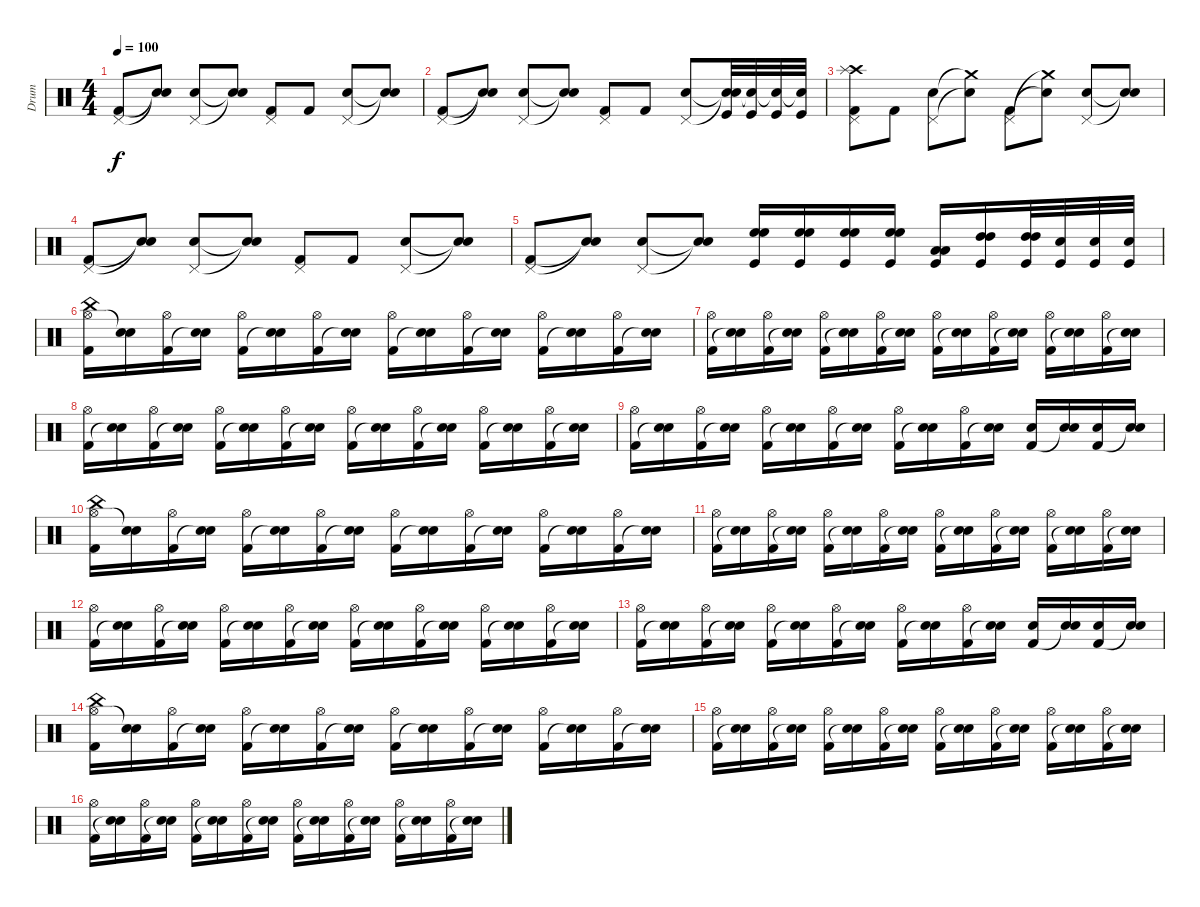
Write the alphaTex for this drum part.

\track ("Drum" "Drum") {instrument percussion}
\staff {score}
\articulation defaults
\ts (4 4)
\tempo 100
\clef neutral
\ks c
("Pedal Hi-Hat (hit)" "Kick (hit) 2").8{dy f} ("Snare (hit)"{t} "Snare (hit)"{t}).8 ("Pedal Hi-Hat (hit)" "Electric Snare (hit)").8 ("Snare (hit)"{t} "Snare (hit)"{t}).8 ("Pedal Hi-Hat (hit)" "Kick (hit) 2").8 "Kick (hit) 2".8 ("Pedal Hi-Hat (hit)" "Electric Snare (hit)").8 ("Snare (hit)"{t} "Snare (hit)"{t}).8 |
("Pedal Hi-Hat (hit)" "Kick (hit) 2").8 ("Snare (hit)"{t} "Snare (hit)"{t}).8 ("Pedal Hi-Hat (hit)" "Electric Snare (hit)").8 ("Snare (hit)"{t} "Snare (hit)"{t}).8 ("Pedal Hi-Hat (hit)" "Kick (hit) 2").8 "Kick (hit) 2".8 ("Pedal Hi-Hat (hit)" "Electric Snare (hit)").8 ("Snare (hit)"{t} "Snare (hit)"{t} "Kick (hit)").32 ("Snare (hit)"{t} "Kick (hit)").32 ("Snare (hit)"{t} "Kick (hit)").32 ("Snare (hit)"{t} "Kick (hit)").32 |
("Crash high (hit)" "Splash (hit)" "Pedal Hi-Hat (hit)" "Kick (hit) 2").8 "Kick (hit) 2".8 ("Electric Snare (hit)" "Pedal Hi-Hat (hit)").8 ("Crash medium (hit)"{t} "Snare (hit)"{t}).8 ("Pedal Hi-Hat (hit)" "Kick (hit) 2").8 ("Crash medium (hit)"{t} "Snare (hit)"{t}).8 ("Pedal Hi-Hat (hit)" "Electric Snare (hit)").8 ("Snare (hit)"{t} "Snare (hit)"{t}).8 |
("Pedal Hi-Hat (hit)" "Kick (hit) 2").8 ("Snare (hit)"{t} "Snare (hit)"{t}).8 ("Pedal Hi-Hat (hit)" "Electric Snare (hit)").8 ("Snare (hit)"{t} "Snare (hit)"{t}).8 ("Pedal Hi-Hat (hit)" "Kick (hit) 2").8 "Kick (hit) 2".8 ("Pedal Hi-Hat (hit)" "Electric Snare (hit)").8 ("Snare (hit)"{t} "Snare (hit)"{t}).8 |
("Pedal Hi-Hat (hit)" "Kick (hit) 2").8 ("Snare (hit)"{t} "Snare (hit)"{t}).8 ("Pedal Hi-Hat (hit)" "Electric Snare (hit)").8 ("Snare (hit)"{t} "Snare (hit)"{t}).8 ("High Floor Tom (hit)" "High Floor Tom (hit)" "Kick (hit)").16 ("High Floor Tom (hit)" "High Floor Tom (hit)" "Kick (hit)").16 ("High Floor Tom (hit)" "High Floor Tom (hit)" "Kick (hit)").16 ("High Floor Tom (hit)" "High Floor Tom (hit)" "Kick (hit)").16 ("Low Tom (hit)" "Low Tom (hit)" "Kick (hit)").16 ("High Tom (hit)" "High Tom (hit)" "Kick (hit)").16 ("High Tom (hit)" "High Tom (hit)" "Kick (hit)").32 ("Snare (hit) 2" "Kick (hit)").32 ("Snare (hit) 2" "Kick (hit)").32 ("Snare (hit) 2" "Kick (hit)").32 |
("China (hit)" "Hi-Hat (open)" "Kick (hit) 2").16 ("Electric Snare (hit)" "Snare (hit)"{t}).16 ("Hi-Hat (open)" "Kick (hit) 2").16 ("Electric Snare (hit)" "Snare (hit)"{t}).16 ("Hi-Hat (open)" "Kick (hit) 2").16 ("Electric Snare (hit)" "Snare (hit)"{t}).16 ("Hi-Hat (open)" "Kick (hit) 2").16 ("Electric Snare (hit)" "Snare (hit)"{t}).16 ("Hi-Hat (open)" "Kick (hit) 2").16 ("Electric Snare (hit)" "Snare (hit)"{t}).16 ("Hi-Hat (open)" "Kick (hit) 2").16 ("Electric Snare (hit)" "Snare (hit)"{t}).16 ("Hi-Hat (open)" "Kick (hit) 2").16 ("Electric Snare (hit)" "Snare (hit)"{t}).16 ("Hi-Hat (open)" "Kick (hit) 2").16 ("Electric Snare (hit)" "Snare (hit)"{t}).16 |
("Hi-Hat (open)" "Kick (hit) 2").16 ("Electric Snare (hit)" "Snare (hit)"{t}).16 ("Hi-Hat (open)" "Kick (hit) 2").16 ("Electric Snare (hit)" "Snare (hit)"{t}).16 ("Hi-Hat (open)" "Kick (hit) 2").16 ("Electric Snare (hit)" "Snare (hit)"{t}).16 ("Hi-Hat (open)" "Kick (hit) 2").16 ("Electric Snare (hit)" "Snare (hit)"{t}).16 ("Hi-Hat (open)" "Kick (hit) 2").16 ("Electric Snare (hit)" "Snare (hit)"{t}).16 ("Hi-Hat (open)" "Kick (hit) 2").16 ("Electric Snare (hit)" "Snare (hit)"{t}).16 ("Hi-Hat (open)" "Kick (hit) 2").16 ("Electric Snare (hit)" "Snare (hit)"{t}).16 ("Hi-Hat (open)" "Kick (hit) 2").16 ("Electric Snare (hit)" "Snare (hit)"{t}).16 |
("Hi-Hat (open)" "Kick (hit) 2").16 ("Electric Snare (hit)" "Snare (hit)"{t}).16 ("Hi-Hat (open)" "Kick (hit) 2").16 ("Electric Snare (hit)" "Snare (hit)"{t}).16 ("Hi-Hat (open)" "Kick (hit) 2").16 ("Electric Snare (hit)" "Snare (hit)"{t}).16 ("Hi-Hat (open)" "Kick (hit) 2").16 ("Electric Snare (hit)" "Snare (hit)"{t}).16 ("Hi-Hat (open)" "Kick (hit) 2").16 ("Electric Snare (hit)" "Snare (hit)"{t}).16 ("Hi-Hat (open)" "Kick (hit) 2").16 ("Electric Snare (hit)" "Snare (hit)"{t}).16 ("Hi-Hat (open)" "Kick (hit) 2").16 ("Electric Snare (hit)" "Snare (hit)"{t}).16 ("Hi-Hat (open)" "Kick (hit) 2").16 ("Electric Snare (hit)" "Snare (hit)"{t}).16 |
("Hi-Hat (open)" "Kick (hit) 2").16 ("Electric Snare (hit)" "Snare (hit)"{t}).16 ("Hi-Hat (open)" "Kick (hit) 2").16 ("Electric Snare (hit)" "Snare (hit)"{t}).16 ("Hi-Hat (open)" "Kick (hit) 2").16 ("Electric Snare (hit)" "Snare (hit)"{t}).16 ("Hi-Hat (open)" "Kick (hit) 2").16 ("Electric Snare (hit)" "Snare (hit)"{t}).16 ("Hi-Hat (open)" "Kick (hit) 2").16 ("Electric Snare (hit)" "Snare (hit)"{t}).16 ("Hi-Hat (open)" "Kick (hit) 2").16 ("Electric Snare (hit)" "Snare (hit)"{t}).16 ("Snare (hit) 2" "Kick (hit) 2").16 ("Snare (hit) 2" "Snare (hit)"{t}).16 ("Snare (hit) 2" "Kick (hit) 2").16 ("Snare (hit) 2" "Snare (hit)"{t}).16 |
("China (hit)" "Hi-Hat (open)" "Kick (hit) 2").16 ("Electric Snare (hit)" "Snare (hit)"{t}).16 ("Hi-Hat (open)" "Kick (hit) 2").16 ("Electric Snare (hit)" "Snare (hit)"{t}).16 ("Hi-Hat (open)" "Kick (hit) 2").16 ("Electric Snare (hit)" "Snare (hit)"{t}).16 ("Hi-Hat (open)" "Kick (hit) 2").16 ("Electric Snare (hit)" "Snare (hit)"{t}).16 ("Hi-Hat (open)" "Kick (hit) 2").16 ("Electric Snare (hit)" "Snare (hit)"{t}).16 ("Hi-Hat (open)" "Kick (hit) 2").16 ("Electric Snare (hit)" "Snare (hit)"{t}).16 ("Hi-Hat (open)" "Kick (hit) 2").16 ("Electric Snare (hit)" "Snare (hit)"{t}).16 ("Hi-Hat (open)" "Kick (hit) 2").16 ("Electric Snare (hit)" "Snare (hit)"{t}).16 |
("Hi-Hat (open)" "Kick (hit) 2").16 ("Electric Snare (hit)" "Snare (hit)"{t}).16 ("Hi-Hat (open)" "Kick (hit) 2").16 ("Electric Snare (hit)" "Snare (hit)"{t}).16 ("Hi-Hat (open)" "Kick (hit) 2").16 ("Electric Snare (hit)" "Snare (hit)"{t}).16 ("Hi-Hat (open)" "Kick (hit) 2").16 ("Electric Snare (hit)" "Snare (hit)"{t}).16 ("Hi-Hat (open)" "Kick (hit) 2").16 ("Electric Snare (hit)" "Snare (hit)"{t}).16 ("Hi-Hat (open)" "Kick (hit) 2").16 ("Electric Snare (hit)" "Snare (hit)"{t}).16 ("Hi-Hat (open)" "Kick (hit) 2").16 ("Electric Snare (hit)" "Snare (hit)"{t}).16 ("Hi-Hat (open)" "Kick (hit) 2").16 ("Electric Snare (hit)" "Snare (hit)"{t}).16 |
("Hi-Hat (open)" "Kick (hit) 2").16 ("Electric Snare (hit)" "Snare (hit)"{t}).16 ("Hi-Hat (open)" "Kick (hit) 2").16 ("Electric Snare (hit)" "Snare (hit)"{t}).16 ("Hi-Hat (open)" "Kick (hit) 2").16 ("Electric Snare (hit)" "Snare (hit)"{t}).16 ("Hi-Hat (open)" "Kick (hit) 2").16 ("Electric Snare (hit)" "Snare (hit)"{t}).16 ("Hi-Hat (open)" "Kick (hit) 2").16 ("Electric Snare (hit)" "Snare (hit)"{t}).16 ("Hi-Hat (open)" "Kick (hit) 2").16 ("Electric Snare (hit)" "Snare (hit)"{t}).16 ("Hi-Hat (open)" "Kick (hit) 2").16 ("Electric Snare (hit)" "Snare (hit)"{t}).16 ("Hi-Hat (open)" "Kick (hit) 2").16 ("Electric Snare (hit)" "Snare (hit)"{t}).16 |
("Hi-Hat (open)" "Kick (hit) 2").16 ("Electric Snare (hit)" "Snare (hit)"{t}).16 ("Hi-Hat (open)" "Kick (hit) 2").16 ("Electric Snare (hit)" "Snare (hit)"{t}).16 ("Hi-Hat (open)" "Kick (hit) 2").16 ("Electric Snare (hit)" "Snare (hit)"{t}).16 ("Hi-Hat (open)" "Kick (hit) 2").16 ("Electric Snare (hit)" "Snare (hit)"{t}).16 ("Hi-Hat (open)" "Kick (hit) 2").16 ("Electric Snare (hit)" "Snare (hit)"{t}).16 ("Hi-Hat (open)" "Kick (hit) 2").16 ("Electric Snare (hit)" "Snare (hit)"{t}).16 ("Snare (hit) 2" "Kick (hit) 2").16 ("Snare (hit) 2" "Snare (hit)"{t}).16 ("Snare (hit) 2" "Kick (hit) 2").16 ("Snare (hit) 2" "Snare (hit)"{t}).16 |
("China (hit)" "Hi-Hat (open)" "Kick (hit) 2").16 ("Electric Snare (hit)" "Snare (hit)"{t}).16 ("Hi-Hat (open)" "Kick (hit) 2").16 ("Electric Snare (hit)" "Snare (hit)"{t}).16 ("Hi-Hat (open)" "Kick (hit) 2").16 ("Electric Snare (hit)" "Snare (hit)"{t}).16 ("Hi-Hat (open)" "Kick (hit) 2").16 ("Electric Snare (hit)" "Snare (hit)"{t}).16 ("Hi-Hat (open)" "Kick (hit) 2").16 ("Electric Snare (hit)" "Snare (hit)"{t}).16 ("Hi-Hat (open)" "Kick (hit) 2").16 ("Electric Snare (hit)" "Snare (hit)"{t}).16 ("Hi-Hat (open)" "Kick (hit) 2").16 ("Electric Snare (hit)" "Snare (hit)"{t}).16 ("Hi-Hat (open)" "Kick (hit) 2").16 ("Electric Snare (hit)" "Snare (hit)"{t}).16 |
("Hi-Hat (open)" "Kick (hit) 2").16 ("Electric Snare (hit)" "Snare (hit)"{t}).16 ("Hi-Hat (open)" "Kick (hit) 2").16 ("Electric Snare (hit)" "Snare (hit)"{t}).16 ("Hi-Hat (open)" "Kick (hit) 2").16 ("Electric Snare (hit)" "Snare (hit)"{t}).16 ("Hi-Hat (open)" "Kick (hit) 2").16 ("Electric Snare (hit)" "Snare (hit)"{t}).16 ("Hi-Hat (open)" "Kick (hit) 2").16 ("Electric Snare (hit)" "Snare (hit)"{t}).16 ("Hi-Hat (open)" "Kick (hit) 2").16 ("Electric Snare (hit)" "Snare (hit)"{t}).16 ("Hi-Hat (open)" "Kick (hit) 2").16 ("Electric Snare (hit)" "Snare (hit)"{t}).16 ("Hi-Hat (open)" "Kick (hit) 2").16 ("Electric Snare (hit)" "Snare (hit)"{t}).16 |
("Hi-Hat (open)" "Kick (hit) 2").16 ("Electric Snare (hit)" "Snare (hit)"{t}).16 ("Hi-Hat (open)" "Kick (hit) 2").16 ("Electric Snare (hit)" "Snare (hit)"{t}).16 ("Hi-Hat (open)" "Kick (hit) 2").16 ("Electric Snare (hit)" "Snare (hit)"{t}).16 ("Hi-Hat (open)" "Kick (hit) 2").16 ("Electric Snare (hit)" "Snare (hit)"{t}).16 ("Hi-Hat (open)" "Kick (hit) 2").16 ("Electric Snare (hit)" "Snare (hit)"{t}).16 ("Hi-Hat (open)" "Kick (hit) 2").16 ("Electric Snare (hit)" "Snare (hit)"{t}).16 ("Hi-Hat (open)" "Kick (hit) 2").16 ("Electric Snare (hit)" "Snare (hit)"{t}).16 ("Hi-Hat (open)" "Kick (hit) 2").16 ("Electric Snare (hit)" "Snare (hit)"{t}).16
